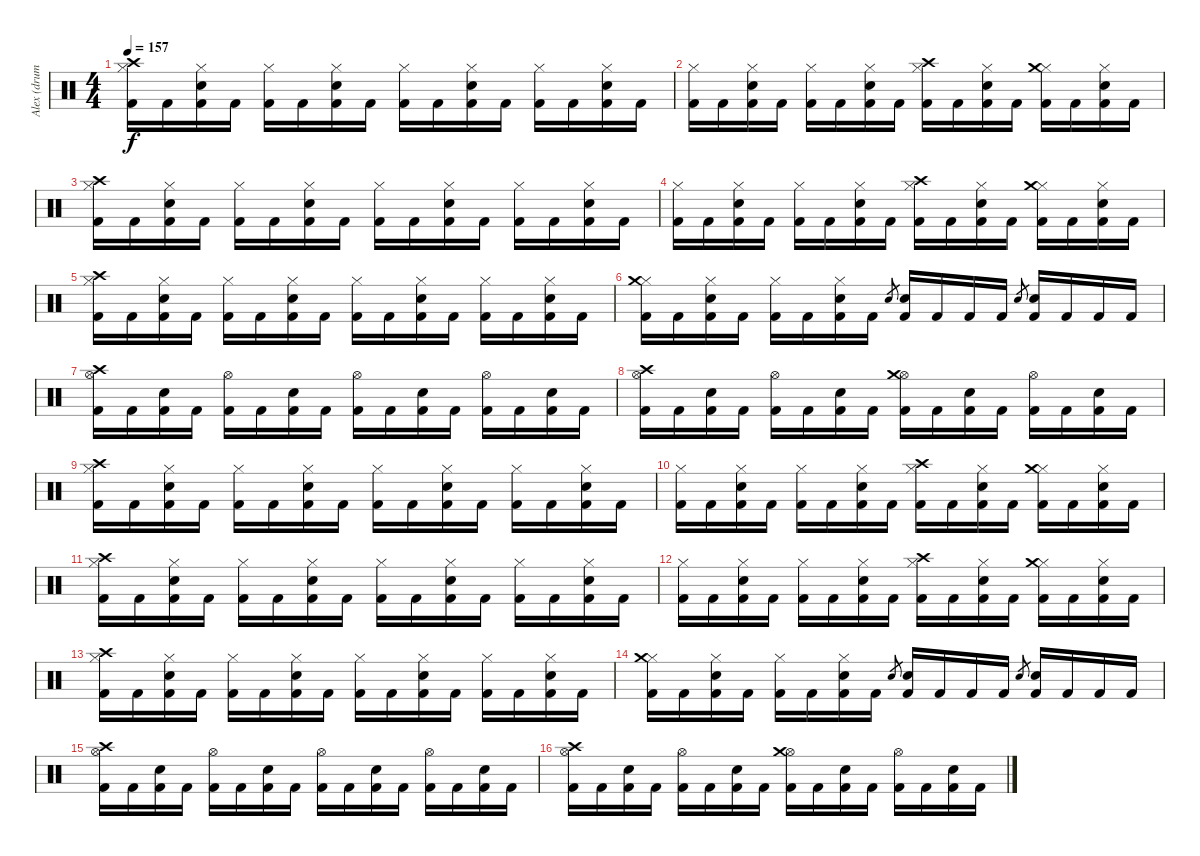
\track ("Alex (drums)" "Alex (drum") {instrument percussion}
\staff {score}
\articulation defaults
\ts (4 4)
\tempo 157
\clef neutral
\ks c
("Hi-Hat (closed)" "Kick (hit) 2" "Crash high (hit)").16{dy f} "Kick (hit) 2".16 ("Hi-Hat (closed)" "Snare (hit) 2" "Kick (hit) 2").16 "Kick (hit) 2".16 ("Hi-Hat (closed)" "Kick (hit) 2").16 "Kick (hit) 2".16 ("Hi-Hat (closed)" "Snare (hit) 2" "Kick (hit) 2").16 "Kick (hit) 2".16 ("Hi-Hat (closed)" "Kick (hit) 2").16 "Kick (hit) 2".16 ("Hi-Hat (closed)" "Snare (hit) 2" "Kick (hit) 2").16 "Kick (hit) 2".16 ("Hi-Hat (closed)" "Kick (hit) 2").16 "Kick (hit) 2".16 ("Hi-Hat (closed)" "Snare (hit) 2" "Kick (hit) 2").16 "Kick (hit) 2".16 |
("Hi-Hat (closed)" "Kick (hit) 2").16 "Kick (hit) 2".16 ("Hi-Hat (closed)" "Snare (hit) 2" "Kick (hit) 2").16 "Kick (hit) 2".16 ("Hi-Hat (closed)" "Kick (hit) 2").16 "Kick (hit) 2".16 ("Hi-Hat (closed)" "Snare (hit) 2" "Kick (hit) 2").16 "Kick (hit) 2".16 ("Hi-Hat (closed)" "Kick (hit) 2" "Crash high (hit)").16 "Kick (hit) 2".16 ("Hi-Hat (closed)" "Snare (hit) 2" "Kick (hit) 2").16 "Kick (hit) 2".16 ("Hi-Hat (closed)" "Kick (hit) 2" "Crash medium (hit)").16 "Kick (hit) 2".16 ("Hi-Hat (closed)" "Snare (hit) 2" "Kick (hit) 2").16 "Kick (hit) 2".16 |
("Hi-Hat (closed)" "Kick (hit) 2" "Crash high (hit)").16 "Kick (hit) 2".16 ("Hi-Hat (closed)" "Snare (hit) 2" "Kick (hit) 2").16 "Kick (hit) 2".16 ("Hi-Hat (closed)" "Kick (hit) 2").16 "Kick (hit) 2".16 ("Hi-Hat (closed)" "Snare (hit) 2" "Kick (hit) 2").16 "Kick (hit) 2".16 ("Hi-Hat (closed)" "Kick (hit) 2").16 "Kick (hit) 2".16 ("Hi-Hat (closed)" "Snare (hit) 2" "Kick (hit) 2").16 "Kick (hit) 2".16 ("Hi-Hat (closed)" "Kick (hit) 2").16 "Kick (hit) 2".16 ("Hi-Hat (closed)" "Snare (hit) 2" "Kick (hit) 2").16 "Kick (hit) 2".16 |
("Hi-Hat (closed)" "Kick (hit) 2").16 "Kick (hit) 2".16 ("Hi-Hat (closed)" "Snare (hit) 2" "Kick (hit) 2").16 "Kick (hit) 2".16 ("Hi-Hat (closed)" "Kick (hit) 2").16 "Kick (hit) 2".16 ("Hi-Hat (closed)" "Snare (hit) 2" "Kick (hit) 2").16 "Kick (hit) 2".16 ("Hi-Hat (closed)" "Kick (hit) 2" "Crash high (hit)").16 "Kick (hit) 2".16 ("Hi-Hat (closed)" "Snare (hit) 2" "Kick (hit) 2").16 "Kick (hit) 2".16 ("Hi-Hat (closed)" "Kick (hit) 2" "Crash medium (hit)").16 "Kick (hit) 2".16 ("Hi-Hat (closed)" "Snare (hit) 2" "Kick (hit) 2").16 "Kick (hit) 2".16 |
("Hi-Hat (closed)" "Kick (hit) 2" "Crash high (hit)").16 "Kick (hit) 2".16 ("Hi-Hat (closed)" "Snare (hit) 2" "Kick (hit) 2").16 "Kick (hit) 2".16 ("Hi-Hat (closed)" "Kick (hit) 2").16 "Kick (hit) 2".16 ("Hi-Hat (closed)" "Snare (hit) 2" "Kick (hit) 2").16 "Kick (hit) 2".16 ("Hi-Hat (closed)" "Kick (hit) 2").16 "Kick (hit) 2".16 ("Hi-Hat (closed)" "Snare (hit) 2" "Kick (hit) 2").16 "Kick (hit) 2".16 ("Hi-Hat (closed)" "Kick (hit) 2").16 "Kick (hit) 2".16 ("Hi-Hat (closed)" "Snare (hit) 2" "Kick (hit) 2").16 "Kick (hit) 2".16 |
("Hi-Hat (closed)" "Kick (hit) 2" "Crash medium (hit)").16 "Kick (hit) 2".16 ("Hi-Hat (closed)" "Snare (hit) 2" "Kick (hit) 2").16 "Kick (hit) 2".16 ("Hi-Hat (closed)" "Kick (hit) 2").16 "Kick (hit) 2".16 ("Hi-Hat (closed)" "Snare (hit) 2" "Kick (hit) 2").16 "Kick (hit) 2".16 "Snare (hit) 2".8{gr} ("Snare (hit) 2" "Kick (hit) 2").16 "Kick (hit) 2".16 "Kick (hit) 2".16 "Kick (hit) 2".16 "Snare (hit) 2".8{gr} ("Snare (hit) 2" "Kick (hit) 2").16 "Kick (hit) 2".16 "Kick (hit) 2".16 "Kick (hit) 2".16 |
("Hi-Hat (open)" "Kick (hit) 2" "Crash high (hit)").16 "Kick (hit) 2".16 ("Snare (hit) 2" "Kick (hit) 2").16 "Kick (hit) 2".16 ("Hi-Hat (open)" "Kick (hit) 2").16 "Kick (hit) 2".16 ("Snare (hit) 2" "Kick (hit) 2").16 "Kick (hit) 2".16 ("Hi-Hat (open)" "Kick (hit) 2").16 "Kick (hit) 2".16 ("Snare (hit) 2" "Kick (hit) 2").16 "Kick (hit) 2".16 ("Hi-Hat (open)" "Kick (hit) 2").16 "Kick (hit) 2".16 ("Snare (hit) 2" "Kick (hit) 2").16 "Kick (hit) 2".16 |
("Hi-Hat (open)" "Kick (hit) 2" "Crash high (hit)").16 "Kick (hit) 2".16 ("Snare (hit) 2" "Kick (hit) 2").16 "Kick (hit) 2".16 ("Hi-Hat (open)" "Kick (hit) 2").16 "Kick (hit) 2".16 ("Snare (hit) 2" "Kick (hit) 2").16 "Kick (hit) 2".16 ("Hi-Hat (open)" "Kick (hit) 2" "Crash medium (hit)").16 "Kick (hit) 2".16 ("Snare (hit) 2" "Kick (hit) 2").16 "Kick (hit) 2".16 ("Hi-Hat (open)" "Kick (hit) 2").16 "Kick (hit) 2".16 ("Snare (hit) 2" "Kick (hit) 2").16 "Kick (hit) 2".16 |
("Hi-Hat (closed)" "Kick (hit) 2" "Crash high (hit)").16 "Kick (hit) 2".16 ("Hi-Hat (closed)" "Snare (hit) 2" "Kick (hit) 2").16 "Kick (hit) 2".16 ("Hi-Hat (closed)" "Kick (hit) 2").16 "Kick (hit) 2".16 ("Hi-Hat (closed)" "Snare (hit) 2" "Kick (hit) 2").16 "Kick (hit) 2".16 ("Hi-Hat (closed)" "Kick (hit) 2").16 "Kick (hit) 2".16 ("Hi-Hat (closed)" "Snare (hit) 2" "Kick (hit) 2").16 "Kick (hit) 2".16 ("Hi-Hat (closed)" "Kick (hit) 2").16 "Kick (hit) 2".16 ("Hi-Hat (closed)" "Snare (hit) 2" "Kick (hit) 2").16 "Kick (hit) 2".16 |
("Hi-Hat (closed)" "Kick (hit) 2").16 "Kick (hit) 2".16 ("Hi-Hat (closed)" "Snare (hit) 2" "Kick (hit) 2").16 "Kick (hit) 2".16 ("Hi-Hat (closed)" "Kick (hit) 2").16 "Kick (hit) 2".16 ("Hi-Hat (closed)" "Snare (hit) 2" "Kick (hit) 2").16 "Kick (hit) 2".16 ("Hi-Hat (closed)" "Kick (hit) 2" "Crash high (hit)").16 "Kick (hit) 2".16 ("Hi-Hat (closed)" "Snare (hit) 2" "Kick (hit) 2").16 "Kick (hit) 2".16 ("Hi-Hat (closed)" "Kick (hit) 2" "Crash medium (hit)").16 "Kick (hit) 2".16 ("Hi-Hat (closed)" "Snare (hit) 2" "Kick (hit) 2").16 "Kick (hit) 2".16 |
("Hi-Hat (closed)" "Kick (hit) 2" "Crash high (hit)").16 "Kick (hit) 2".16 ("Hi-Hat (closed)" "Snare (hit) 2" "Kick (hit) 2").16 "Kick (hit) 2".16 ("Hi-Hat (closed)" "Kick (hit) 2").16 "Kick (hit) 2".16 ("Hi-Hat (closed)" "Snare (hit) 2" "Kick (hit) 2").16 "Kick (hit) 2".16 ("Hi-Hat (closed)" "Kick (hit) 2").16 "Kick (hit) 2".16 ("Hi-Hat (closed)" "Snare (hit) 2" "Kick (hit) 2").16 "Kick (hit) 2".16 ("Hi-Hat (closed)" "Kick (hit) 2").16 "Kick (hit) 2".16 ("Hi-Hat (closed)" "Snare (hit) 2" "Kick (hit) 2").16 "Kick (hit) 2".16 |
("Hi-Hat (closed)" "Kick (hit) 2").16 "Kick (hit) 2".16 ("Hi-Hat (closed)" "Snare (hit) 2" "Kick (hit) 2").16 "Kick (hit) 2".16 ("Hi-Hat (closed)" "Kick (hit) 2").16 "Kick (hit) 2".16 ("Hi-Hat (closed)" "Snare (hit) 2" "Kick (hit) 2").16 "Kick (hit) 2".16 ("Hi-Hat (closed)" "Kick (hit) 2" "Crash high (hit)").16 "Kick (hit) 2".16 ("Hi-Hat (closed)" "Snare (hit) 2" "Kick (hit) 2").16 "Kick (hit) 2".16 ("Hi-Hat (closed)" "Kick (hit) 2" "Crash medium (hit)").16 "Kick (hit) 2".16 ("Hi-Hat (closed)" "Snare (hit) 2" "Kick (hit) 2").16 "Kick (hit) 2".16 |
("Hi-Hat (closed)" "Kick (hit) 2" "Crash high (hit)").16 "Kick (hit) 2".16 ("Hi-Hat (closed)" "Snare (hit) 2" "Kick (hit) 2").16 "Kick (hit) 2".16 ("Hi-Hat (closed)" "Kick (hit) 2").16 "Kick (hit) 2".16 ("Hi-Hat (closed)" "Snare (hit) 2" "Kick (hit) 2").16 "Kick (hit) 2".16 ("Hi-Hat (closed)" "Kick (hit) 2").16 "Kick (hit) 2".16 ("Hi-Hat (closed)" "Snare (hit) 2" "Kick (hit) 2").16 "Kick (hit) 2".16 ("Hi-Hat (closed)" "Kick (hit) 2").16 "Kick (hit) 2".16 ("Hi-Hat (closed)" "Snare (hit) 2" "Kick (hit) 2").16 "Kick (hit) 2".16 |
("Hi-Hat (closed)" "Kick (hit) 2" "Crash medium (hit)").16 "Kick (hit) 2".16 ("Hi-Hat (closed)" "Snare (hit) 2" "Kick (hit) 2").16 "Kick (hit) 2".16 ("Hi-Hat (closed)" "Kick (hit) 2").16 "Kick (hit) 2".16 ("Hi-Hat (closed)" "Snare (hit) 2" "Kick (hit) 2").16 "Kick (hit) 2".16 "Snare (hit) 2".8{gr} ("Snare (hit) 2" "Kick (hit) 2").16 "Kick (hit) 2".16 "Kick (hit) 2".16 "Kick (hit) 2".16 "Snare (hit) 2".8{gr} ("Snare (hit) 2" "Kick (hit) 2").16 "Kick (hit) 2".16 "Kick (hit) 2".16 "Kick (hit) 2".16 |
("Hi-Hat (open)" "Kick (hit) 2" "Crash high (hit)").16 "Kick (hit) 2".16 ("Snare (hit) 2" "Kick (hit) 2").16 "Kick (hit) 2".16 ("Hi-Hat (open)" "Kick (hit) 2").16 "Kick (hit) 2".16 ("Snare (hit) 2" "Kick (hit) 2").16 "Kick (hit) 2".16 ("Hi-Hat (open)" "Kick (hit) 2").16 "Kick (hit) 2".16 ("Snare (hit) 2" "Kick (hit) 2").16 "Kick (hit) 2".16 ("Hi-Hat (open)" "Kick (hit) 2").16 "Kick (hit) 2".16 ("Snare (hit) 2" "Kick (hit) 2").16 "Kick (hit) 2".16 |
("Hi-Hat (open)" "Kick (hit) 2" "Crash high (hit)").16 "Kick (hit) 2".16 ("Snare (hit) 2" "Kick (hit) 2").16 "Kick (hit) 2".16 ("Hi-Hat (open)" "Kick (hit) 2").16 "Kick (hit) 2".16 ("Snare (hit) 2" "Kick (hit) 2").16 "Kick (hit) 2".16 ("Hi-Hat (open)" "Kick (hit) 2" "Crash medium (hit)").16 "Kick (hit) 2".16 ("Snare (hit) 2" "Kick (hit) 2").16 "Kick (hit) 2".16 ("Hi-Hat (open)" "Kick (hit) 2").16 "Kick (hit) 2".16 ("Snare (hit) 2" "Kick (hit) 2").16 "Kick (hit) 2".16
